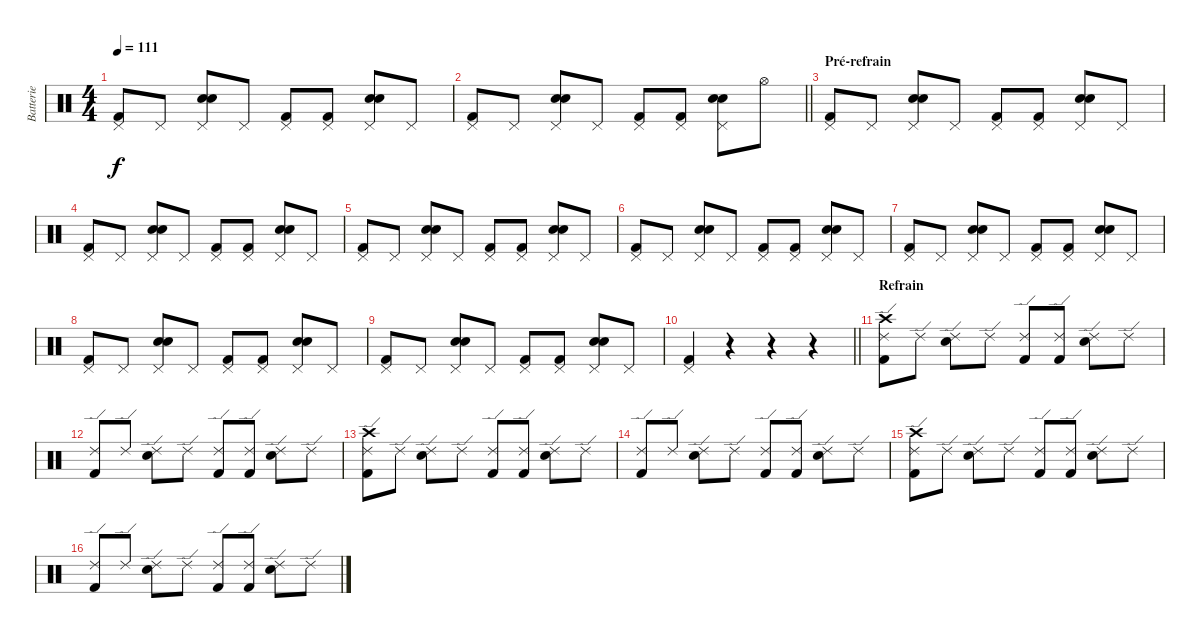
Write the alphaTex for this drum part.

\track ("Batterie" "Batterie") {instrument percussion}
\staff {score}
\articulation defaults
\ts (4 4)
\tempo 111
\clef neutral
\ks c
("Kick (hit) 2" "Pedal Hi-Hat (hit)").8{dy f} "Pedal Hi-Hat (hit)".8 ("Snare (hit) 2" "Pedal Hi-Hat (hit)" "Hand Clap (hit)").8 "Pedal Hi-Hat (hit)".8 ("Kick (hit) 2" "Pedal Hi-Hat (hit)").8 ("Kick (hit) 2" "Pedal Hi-Hat (hit)").8 ("Snare (hit) 2" "Pedal Hi-Hat (hit)" "Hand Clap (hit)").8 "Pedal Hi-Hat (hit)".8 |
\barLineRight lightlight
("Kick (hit) 2" "Pedal Hi-Hat (hit)").8 "Pedal Hi-Hat (hit)".8 ("Snare (hit) 2" "Pedal Hi-Hat (hit)" "Hand Clap (hit)").8 "Pedal Hi-Hat (hit)".8 ("Kick (hit) 2" "Pedal Hi-Hat (hit)").8 ("Kick (hit) 2" "Pedal Hi-Hat (hit)").8 ("Snare (hit) 2" "Pedal Hi-Hat (hit)" "Hand Clap (hit)").8 "Hi-Hat (open)".8 |
\section ("" "Pré-refrain")
("Kick (hit) 2" "Pedal Hi-Hat (hit)").8 "Pedal Hi-Hat (hit)".8 ("Snare (hit) 2" "Pedal Hi-Hat (hit)" "Hand Clap (hit)").8 "Pedal Hi-Hat (hit)".8 ("Kick (hit) 2" "Pedal Hi-Hat (hit)").8 ("Kick (hit) 2" "Pedal Hi-Hat (hit)").8 ("Snare (hit) 2" "Pedal Hi-Hat (hit)" "Hand Clap (hit)").8 "Pedal Hi-Hat (hit)".8 |
("Kick (hit) 2" "Pedal Hi-Hat (hit)").8 "Pedal Hi-Hat (hit)".8 ("Snare (hit) 2" "Pedal Hi-Hat (hit)" "Hand Clap (hit)").8 "Pedal Hi-Hat (hit)".8 ("Kick (hit) 2" "Pedal Hi-Hat (hit)").8 ("Kick (hit) 2" "Pedal Hi-Hat (hit)").8 ("Snare (hit) 2" "Pedal Hi-Hat (hit)" "Hand Clap (hit)").8 "Pedal Hi-Hat (hit)".8 |
("Kick (hit) 2" "Pedal Hi-Hat (hit)").8 "Pedal Hi-Hat (hit)".8 ("Snare (hit) 2" "Pedal Hi-Hat (hit)" "Hand Clap (hit)").8 "Pedal Hi-Hat (hit)".8 ("Kick (hit) 2" "Pedal Hi-Hat (hit)").8 ("Kick (hit) 2" "Pedal Hi-Hat (hit)").8 ("Snare (hit) 2" "Pedal Hi-Hat (hit)" "Hand Clap (hit)").8 "Pedal Hi-Hat (hit)".8 |
("Kick (hit) 2" "Pedal Hi-Hat (hit)").8 "Pedal Hi-Hat (hit)".8 ("Snare (hit) 2" "Pedal Hi-Hat (hit)" "Hand Clap (hit)").8 "Pedal Hi-Hat (hit)".8 ("Kick (hit) 2" "Pedal Hi-Hat (hit)").8 ("Kick (hit) 2" "Pedal Hi-Hat (hit)").8 ("Snare (hit) 2" "Pedal Hi-Hat (hit)" "Hand Clap (hit)").8 "Pedal Hi-Hat (hit)".8 |
("Kick (hit) 2" "Pedal Hi-Hat (hit)").8 "Pedal Hi-Hat (hit)".8 ("Snare (hit) 2" "Pedal Hi-Hat (hit)" "Hand Clap (hit)").8 "Pedal Hi-Hat (hit)".8 ("Kick (hit) 2" "Pedal Hi-Hat (hit)").8 ("Kick (hit) 2" "Pedal Hi-Hat (hit)").8 ("Snare (hit) 2" "Pedal Hi-Hat (hit)" "Hand Clap (hit)").8 "Pedal Hi-Hat (hit)".8 |
("Kick (hit) 2" "Pedal Hi-Hat (hit)").8 "Pedal Hi-Hat (hit)".8 ("Snare (hit) 2" "Pedal Hi-Hat (hit)" "Hand Clap (hit)").8 "Pedal Hi-Hat (hit)".8 ("Kick (hit) 2" "Pedal Hi-Hat (hit)").8 ("Kick (hit) 2" "Pedal Hi-Hat (hit)").8 ("Snare (hit) 2" "Pedal Hi-Hat (hit)" "Hand Clap (hit)").8 "Pedal Hi-Hat (hit)".8 |
("Kick (hit) 2" "Pedal Hi-Hat (hit)").8 "Pedal Hi-Hat (hit)".8 ("Snare (hit) 2" "Pedal Hi-Hat (hit)" "Hand Clap (hit)").8 "Pedal Hi-Hat (hit)".8 ("Kick (hit) 2" "Pedal Hi-Hat (hit)").8 ("Kick (hit) 2" "Pedal Hi-Hat (hit)").8 ("Snare (hit) 2" "Pedal Hi-Hat (hit)" "Hand Clap (hit)").8 "Pedal Hi-Hat (hit)".8 |
\barLineRight lightlight
("Kick (hit) 2" "Pedal Hi-Hat (hit)").4 r.4 r.4 r.4 |
\section ("" "Refrain")
("Kick (hit) 2" "Ride (edge) 2" "Crash high (hit)").8 "Ride (edge) 2".8 ("Snare (hit) 2" "Ride (edge) 2").8 "Ride (edge) 2".8 ("Kick (hit) 2" "Ride (edge) 2").8 ("Kick (hit) 2" "Ride (edge) 2").8 ("Snare (hit) 2" "Ride (edge) 2").8 "Ride (edge) 2".8 |
("Kick (hit) 2" "Ride (edge) 2").8 "Ride (edge) 2".8 ("Snare (hit) 2" "Ride (edge) 2").8 "Ride (edge) 2".8 ("Kick (hit) 2" "Ride (edge) 2").8 ("Kick (hit) 2" "Ride (edge) 2").8 ("Snare (hit) 2" "Ride (edge) 2").8 "Ride (edge) 2".8 |
("Kick (hit) 2" "Ride (edge) 2" "Crash high (hit)").8 "Ride (edge) 2".8 ("Snare (hit) 2" "Ride (edge) 2").8 "Ride (edge) 2".8 ("Kick (hit) 2" "Ride (edge) 2").8 ("Kick (hit) 2" "Ride (edge) 2").8 ("Snare (hit) 2" "Ride (edge) 2").8 "Ride (edge) 2".8 |
("Kick (hit) 2" "Ride (edge) 2").8 "Ride (edge) 2".8 ("Snare (hit) 2" "Ride (edge) 2").8 "Ride (edge) 2".8 ("Kick (hit) 2" "Ride (edge) 2").8 ("Kick (hit) 2" "Ride (edge) 2").8 ("Snare (hit) 2" "Ride (edge) 2").8 "Ride (edge) 2".8 |
("Kick (hit) 2" "Ride (edge) 2" "Crash high (hit)").8 "Ride (edge) 2".8 ("Snare (hit) 2" "Ride (edge) 2").8 "Ride (edge) 2".8 ("Kick (hit) 2" "Ride (edge) 2").8 ("Kick (hit) 2" "Ride (edge) 2").8 ("Snare (hit) 2" "Ride (edge) 2").8 "Ride (edge) 2".8 |
("Kick (hit) 2" "Ride (edge) 2").8 "Ride (edge) 2".8 ("Snare (hit) 2" "Ride (edge) 2").8 "Ride (edge) 2".8 ("Kick (hit) 2" "Ride (edge) 2").8 ("Kick (hit) 2" "Ride (edge) 2").8 ("Snare (hit) 2" "Ride (edge) 2").8 "Ride (edge) 2".8
